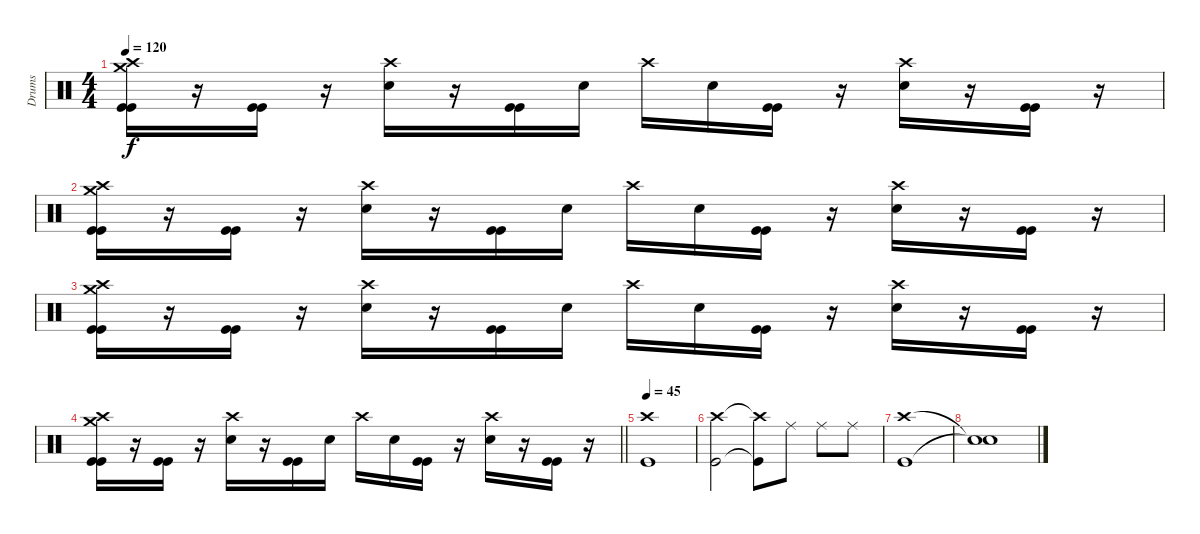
\track ("Drums" "Drums") {instrument percussion}
\staff {score}
\articulation defaults
\ts (4 4)
\tempo 120
\clef neutral
\ks c
("Crash high (hit)" "Kick (hit)" "Kick (hit)" "Crash medium (hit)").16{dy f} r.16 ("Kick (hit)" "Kick (hit)").16 r.16 ("Crash high (hit)" "Snare (hit) 2").16 r.16 ("Kick (hit)" "Kick (hit)").16 "Snare (hit) 2".16 "Crash high (hit)".16 "Snare (hit) 2".16 ("Kick (hit)" "Kick (hit)").16 r.16 ("Crash high (hit)" "Snare (hit) 2").16 r.16 ("Kick (hit)" "Kick (hit)").16 r.16 |
("Crash high (hit)" "Kick (hit)" "Kick (hit)" "Crash medium (hit)").16 r.16 ("Kick (hit)" "Kick (hit)").16 r.16 ("Crash high (hit)" "Snare (hit) 2").16 r.16 ("Kick (hit)" "Kick (hit)").16 "Snare (hit) 2".16 "Crash high (hit)".16 "Snare (hit) 2".16 ("Kick (hit)" "Kick (hit)").16 r.16 ("Crash high (hit)" "Snare (hit) 2").16 r.16 ("Kick (hit)" "Kick (hit)").16 r.16 |
("Crash high (hit)" "Kick (hit)" "Kick (hit)" "Crash medium (hit)").16 r.16 ("Kick (hit)" "Kick (hit)").16 r.16 ("Crash high (hit)" "Snare (hit) 2").16 r.16 ("Kick (hit)" "Kick (hit)").16 "Snare (hit) 2".16 "Crash high (hit)".16 "Snare (hit) 2".16 ("Kick (hit)" "Kick (hit)").16 r.16 ("Crash high (hit)" "Snare (hit) 2").16 r.16 ("Kick (hit)" "Kick (hit)").16 r.16 |
\barLineRight lightlight
("Crash high (hit)" "Kick (hit)" "Kick (hit)" "Crash medium (hit)").16 r.16 ("Kick (hit)" "Kick (hit)").16 r.16 ("Crash high (hit)" "Snare (hit) 2").16 r.16 ("Kick (hit)" "Kick (hit)").16 "Snare (hit) 2".16 "Crash high (hit)".16 "Snare (hit) 2".16 ("Kick (hit)" "Kick (hit)").16 r.16 ("Crash high (hit)" "Snare (hit) 2").16 r.16 ("Kick (hit)" "Kick (hit)").16 r.16 |
\tempo 45
("Crash high (hit)" "Kick (hit)").1 |
("Crash high (hit)" "Kick (hit)").2 ("Crash high (hit)"{t} "Kick (hit)"{t}).8 "Ride (middle)".8 "Ride (middle)".8 "Ride (middle)".8 |
("Crash high (hit)" "Kick (hit)").1 |
("Snare (hit)"{t} "Snare (hit)"{t}).1
